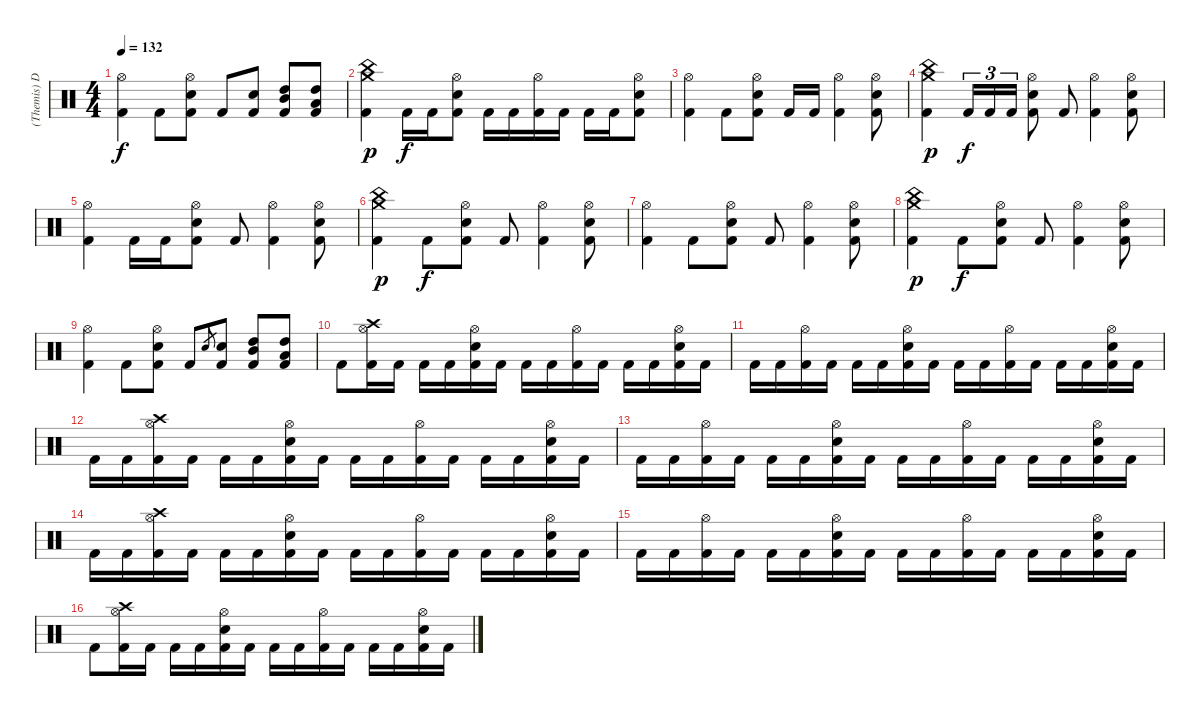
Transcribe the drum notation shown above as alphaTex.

\track ("(Themis) Drums" "(Themis) D") {instrument percussion}
\staff {score}
\articulation defaults
\ts (4 4)
\tempo 132
\clef neutral
\ks c
("Hi-Hat (open)" "Kick (hit) 2").4{dy f} "Kick (hit) 2".8 ("Hi-Hat (open)" "Electric Snare (hit)" "Kick (hit) 2").8 "Kick (hit) 2".8 ("Electric Snare (hit)" "Kick (hit) 2").8 ("Mid Tom (hit)" "High Tom (hit)" "Kick (hit) 2").8 ("High Tom (hit)" "Low Tom (hit)" "Kick (hit) 2").8 |
("Crash medium (hit)" "China (hit)" "Kick (hit) 2").4{dy p} "Kick (hit) 2".16{dy f} "Kick (hit) 2".16 ("Hi-Hat (open)" "Electric Snare (hit)" "Kick (hit) 2").8 "Kick (hit) 2".16 "Kick (hit) 2".16 ("Hi-Hat (open)" "Kick (hit) 2").16 "Kick (hit) 2".16 "Kick (hit) 2".16 "Kick (hit) 2".16 ("Hi-Hat (open)" "Electric Snare (hit)" "Kick (hit) 2").8 |
("Hi-Hat (open)" "Kick (hit) 2").4 "Kick (hit) 2".8 ("Hi-Hat (open)" "Electric Snare (hit)" "Kick (hit) 2").8 "Kick (hit) 2".16 "Kick (hit) 2".16 ("Hi-Hat (open)" "Kick (hit) 2").4 ("Hi-Hat (open)" "Electric Snare (hit)" "Kick (hit) 2").8 |
("Crash medium (hit)" "China (hit)" "Kick (hit) 2").4{dy p} "Kick (hit) 2".16{tu (3 2) dy f} "Kick (hit) 2".16{tu (3 2)} "Kick (hit) 2".16{tu (3 2)} ("Hi-Hat (open)" "Electric Snare (hit)" "Kick (hit) 2").8 "Kick (hit) 2".8 ("Hi-Hat (open)" "Kick (hit) 2").4 ("Hi-Hat (open)" "Electric Snare (hit)" "Kick (hit) 2").8 |
("Hi-Hat (open)" "Kick (hit) 2").4 "Kick (hit) 2".16 "Kick (hit) 2".16 ("Hi-Hat (open)" "Electric Snare (hit)" "Kick (hit) 2").8 "Kick (hit) 2".8 ("Hi-Hat (open)" "Kick (hit) 2").4 ("Hi-Hat (open)" "Electric Snare (hit)" "Kick (hit) 2").8 |
("Crash medium (hit)" "China (hit)" "Kick (hit) 2").4{dy p} "Kick (hit) 2".8{dy f} ("Hi-Hat (open)" "Electric Snare (hit)" "Kick (hit) 2").8 "Kick (hit) 2".8 ("Hi-Hat (open)" "Kick (hit) 2").4 ("Hi-Hat (open)" "Electric Snare (hit)" "Kick (hit) 2").8 |
("Hi-Hat (open)" "Kick (hit) 2").4 "Kick (hit) 2".8 ("Hi-Hat (open)" "Electric Snare (hit)" "Kick (hit) 2").8 "Kick (hit) 2".8 ("Hi-Hat (open)" "Kick (hit) 2").4 ("Hi-Hat (open)" "Electric Snare (hit)" "Kick (hit) 2").8 |
("Crash medium (hit)" "China (hit)" "Kick (hit) 2").4{dy p} "Kick (hit) 2".8{dy f} ("Hi-Hat (open)" "Electric Snare (hit)" "Kick (hit) 2").8 "Kick (hit) 2".8 ("Hi-Hat (open)" "Kick (hit) 2").4 ("Hi-Hat (open)" "Electric Snare (hit)" "Kick (hit) 2").8 |
("Hi-Hat (open)" "Kick (hit) 2").4 "Kick (hit) 2".8 ("Hi-Hat (open)" "Electric Snare (hit)" "Kick (hit) 2").8 "Kick (hit) 2".8 "Electric Snare (hit)".8{gr} ("Electric Snare (hit)" "Kick (hit) 2").8 ("Mid Tom (hit)" "High Tom (hit)" "Kick (hit) 2").8 ("High Tom (hit)" "Low Tom (hit)" "Kick (hit) 2").8 |
"Kick (hit) 2".8 ("Crash high (hit)" "Hi-Hat (open)" "Kick (hit) 2").16 "Kick (hit) 2".16 "Kick (hit) 2".16 "Kick (hit) 2".16 ("Hi-Hat (open)" "Electric Snare (hit)" "Kick (hit) 2").16 "Kick (hit) 2".16 "Kick (hit) 2".16 "Kick (hit) 2".16 ("Hi-Hat (open)" "Kick (hit) 2").16 "Kick (hit) 2".16 "Kick (hit) 2".16 "Kick (hit) 2".16 ("Hi-Hat (open)" "Electric Snare (hit)" "Kick (hit) 2").16 "Kick (hit) 2".16 |
"Kick (hit) 2".16 "Kick (hit) 2".16 ("Hi-Hat (open)" "Kick (hit) 2").16 "Kick (hit) 2".16 "Kick (hit) 2".16 "Kick (hit) 2".16 ("Hi-Hat (open)" "Electric Snare (hit)" "Kick (hit) 2").16 "Kick (hit) 2".16 "Kick (hit) 2".16 "Kick (hit) 2".16 ("Hi-Hat (open)" "Kick (hit) 2").16 "Kick (hit) 2".16 "Kick (hit) 2".16 "Kick (hit) 2".16 ("Hi-Hat (open)" "Electric Snare (hit)" "Kick (hit) 2").16 "Kick (hit) 2".16 |
"Kick (hit) 2".16 "Kick (hit) 2".16 ("Crash high (hit)" "Hi-Hat (open)" "Kick (hit) 2").16 "Kick (hit) 2".16 "Kick (hit) 2".16 "Kick (hit) 2".16 ("Hi-Hat (open)" "Electric Snare (hit)" "Kick (hit) 2").16 "Kick (hit) 2".16 "Kick (hit) 2".16 "Kick (hit) 2".16 ("Hi-Hat (open)" "Kick (hit) 2").16 "Kick (hit) 2".16 "Kick (hit) 2".16 "Kick (hit) 2".16 ("Hi-Hat (open)" "Electric Snare (hit)" "Kick (hit) 2").16 "Kick (hit) 2".16 |
"Kick (hit) 2".16 "Kick (hit) 2".16 ("Hi-Hat (open)" "Kick (hit) 2").16 "Kick (hit) 2".16 "Kick (hit) 2".16 "Kick (hit) 2".16 ("Hi-Hat (open)" "Electric Snare (hit)" "Kick (hit) 2").16 "Kick (hit) 2".16 "Kick (hit) 2".16 "Kick (hit) 2".16 ("Hi-Hat (open)" "Kick (hit) 2").16 "Kick (hit) 2".16 "Kick (hit) 2".16 "Kick (hit) 2".16 ("Hi-Hat (open)" "Electric Snare (hit)" "Kick (hit) 2").16 "Kick (hit) 2".16 |
"Kick (hit) 2".16 "Kick (hit) 2".16 ("Crash high (hit)" "Hi-Hat (open)" "Kick (hit) 2").16 "Kick (hit) 2".16 "Kick (hit) 2".16 "Kick (hit) 2".16 ("Hi-Hat (open)" "Electric Snare (hit)" "Kick (hit) 2").16 "Kick (hit) 2".16 "Kick (hit) 2".16 "Kick (hit) 2".16 ("Hi-Hat (open)" "Kick (hit) 2").16 "Kick (hit) 2".16 "Kick (hit) 2".16 "Kick (hit) 2".16 ("Hi-Hat (open)" "Electric Snare (hit)" "Kick (hit) 2").16 "Kick (hit) 2".16 |
"Kick (hit) 2".16 "Kick (hit) 2".16 ("Hi-Hat (open)" "Kick (hit) 2").16 "Kick (hit) 2".16 "Kick (hit) 2".16 "Kick (hit) 2".16 ("Hi-Hat (open)" "Electric Snare (hit)" "Kick (hit) 2").16 "Kick (hit) 2".16 "Kick (hit) 2".16 "Kick (hit) 2".16 ("Hi-Hat (open)" "Kick (hit) 2").16 "Kick (hit) 2".16 "Kick (hit) 2".16 "Kick (hit) 2".16 ("Hi-Hat (open)" "Electric Snare (hit)" "Kick (hit) 2").16 "Kick (hit) 2".16 |
"Kick (hit) 2".8 ("Crash high (hit)" "Hi-Hat (open)" "Kick (hit) 2").16 "Kick (hit) 2".16 "Kick (hit) 2".16 "Kick (hit) 2".16 ("Hi-Hat (open)" "Electric Snare (hit)" "Kick (hit) 2").16 "Kick (hit) 2".16 "Kick (hit) 2".16 "Kick (hit) 2".16 ("Hi-Hat (open)" "Kick (hit) 2").16 "Kick (hit) 2".16 "Kick (hit) 2".16 "Kick (hit) 2".16 ("Hi-Hat (open)" "Electric Snare (hit)" "Kick (hit) 2").16 "Kick (hit) 2".16
